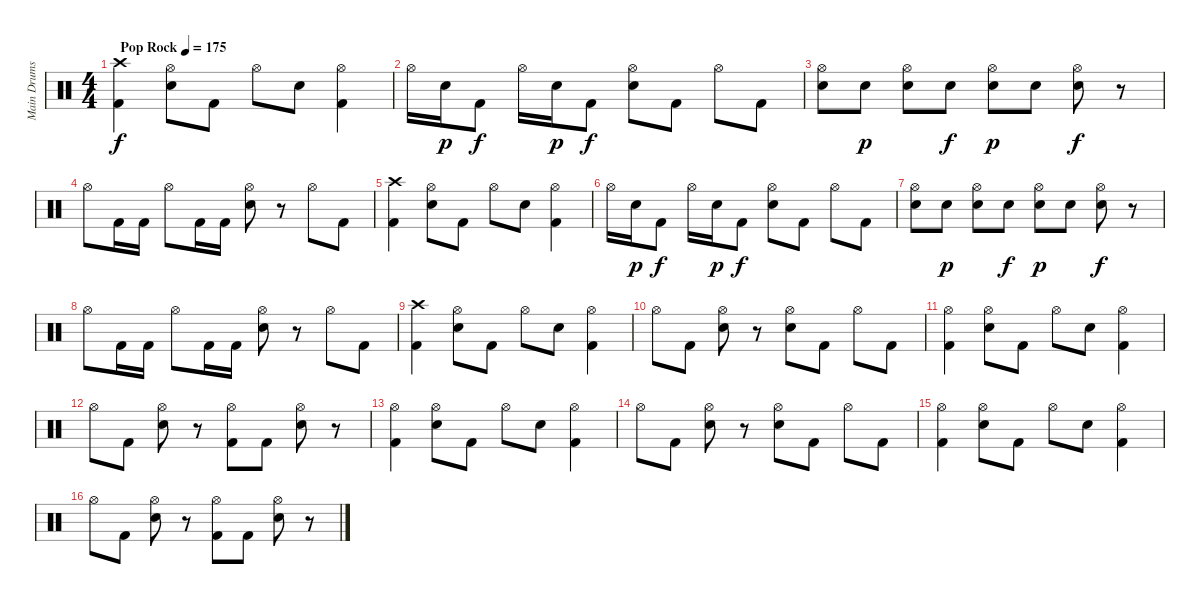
\track ("Main Drums" "Main Drums") {instrument percussion}
\staff {score}
\articulation defaults
\ts (4 4)
\tempo (175 "Pop Rock")
\clef neutral
\ks c
("Crash high (hit)" "Kick (hit) 2").4{dy f} ("Hi-Hat (open)" "Electric Snare (hit)").8 "Kick (hit) 2".8 "Hi-Hat (open)".8 "Electric Snare (hit)".8 ("Hi-Hat (open)" "Kick (hit) 2").4 |
"Hi-Hat (open)".16 "Electric Snare (hit)".16{dy p} "Kick (hit) 2".8{dy f} "Hi-Hat (open)".16 "Electric Snare (hit)".16{dy p} "Kick (hit) 2".8{dy f} ("Hi-Hat (open)" "Electric Snare (hit)").8 "Kick (hit) 2".8 "Hi-Hat (open)".8 "Kick (hit) 2".8 |
("Hi-Hat (open)" "Electric Snare (hit)").8 "Electric Snare (hit)".8{dy p} ("Hi-Hat (open)" "Electric Snare (hit)").8 "Electric Snare (hit)".8{dy f} ("Hi-Hat (open)" "Electric Snare (hit)").8{dy p} "Electric Snare (hit)".8 ("Hi-Hat (open)" "Electric Snare (hit)").8{dy f} r.8 |
"Hi-Hat (open)".8 "Kick (hit) 2".16 "Kick (hit) 2".16 "Hi-Hat (open)".8 "Kick (hit) 2".16 "Kick (hit) 2".16 ("Hi-Hat (open)" "Electric Snare (hit)").8 r.8 "Hi-Hat (open)".8 "Kick (hit) 2".8 |
("Crash high (hit)" "Kick (hit) 2").4 ("Hi-Hat (open)" "Electric Snare (hit)").8 "Kick (hit) 2".8 "Hi-Hat (open)".8 "Electric Snare (hit)".8 ("Hi-Hat (open)" "Kick (hit) 2").4 |
"Hi-Hat (open)".16 "Electric Snare (hit)".16{dy p} "Kick (hit) 2".8{dy f} "Hi-Hat (open)".16 "Electric Snare (hit)".16{dy p} "Kick (hit) 2".8{dy f} ("Hi-Hat (open)" "Electric Snare (hit)").8 "Kick (hit) 2".8 "Hi-Hat (open)".8 "Kick (hit) 2".8 |
("Hi-Hat (open)" "Electric Snare (hit)").8 "Electric Snare (hit)".8{dy p} ("Hi-Hat (open)" "Electric Snare (hit)").8 "Electric Snare (hit)".8{dy f} ("Hi-Hat (open)" "Electric Snare (hit)").8{dy p} "Electric Snare (hit)".8 ("Hi-Hat (open)" "Electric Snare (hit)").8{dy f} r.8 |
"Hi-Hat (open)".8 "Kick (hit) 2".16 "Kick (hit) 2".16 "Hi-Hat (open)".8 "Kick (hit) 2".16 "Kick (hit) 2".16 ("Hi-Hat (open)" "Electric Snare (hit)").8 r.8 "Hi-Hat (open)".8 "Kick (hit) 2".8 |
("Crash high (hit)" "Kick (hit) 2").4 ("Hi-Hat (open)" "Electric Snare (hit)").8 "Kick (hit) 2".8 "Hi-Hat (open)".8 "Electric Snare (hit)".8 ("Hi-Hat (open)" "Kick (hit) 2").4 |
"Hi-Hat (open)".8 "Kick (hit) 2".8 ("Hi-Hat (open)" "Electric Snare (hit)").8 r.8 ("Hi-Hat (open)" "Electric Snare (hit)").8 "Kick (hit) 2".8 "Hi-Hat (open)".8 "Kick (hit) 2".8 |
("Hi-Hat (open)" "Kick (hit) 2").4 ("Hi-Hat (open)" "Electric Snare (hit)").8 "Kick (hit) 2".8 "Hi-Hat (open)".8 "Electric Snare (hit)".8 ("Hi-Hat (open)" "Kick (hit) 2").4 |
"Hi-Hat (open)".8 "Kick (hit) 2".8 ("Hi-Hat (open)" "Electric Snare (hit)").8 r.8 ("Hi-Hat (open)" "Kick (hit) 2").8 "Kick (hit) 2".8 ("Hi-Hat (open)" "Electric Snare (hit)").8 r.8 |
("Hi-Hat (open)" "Kick (hit) 2").4 ("Hi-Hat (open)" "Electric Snare (hit)").8 "Kick (hit) 2".8 "Hi-Hat (open)".8 "Electric Snare (hit)".8 ("Hi-Hat (open)" "Kick (hit) 2").4 |
"Hi-Hat (open)".8 "Kick (hit) 2".8 ("Hi-Hat (open)" "Electric Snare (hit)").8 r.8 ("Hi-Hat (open)" "Electric Snare (hit)").8 "Kick (hit) 2".8 "Hi-Hat (open)".8 "Kick (hit) 2".8 |
("Hi-Hat (open)" "Kick (hit) 2").4 ("Hi-Hat (open)" "Electric Snare (hit)").8 "Kick (hit) 2".8 "Hi-Hat (open)".8 "Electric Snare (hit)".8 ("Hi-Hat (open)" "Kick (hit) 2").4 |
"Hi-Hat (open)".8 "Kick (hit) 2".8 ("Hi-Hat (open)" "Electric Snare (hit)").8 r.8 ("Hi-Hat (open)" "Kick (hit) 2").8 "Kick (hit) 2".8 ("Hi-Hat (open)" "Electric Snare (hit)").8 r.8
